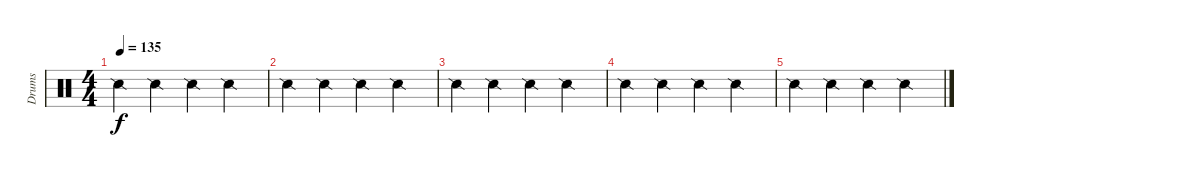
\track ("Drums" "Drums") {instrument percussion}
\staff {score}
\articulation defaults
\ts (4 4)
\tempo 135
\clef neutral
\ks c "Snare (side stick) 2".4{dy f} "Snare (side stick) 2".4 "Snare (side stick) 2".4 "Snare (side stick) 2".4
|
"Snare (side stick) 2".4 "Snare (side stick) 2".4 "Snare (side stick) 2".4 "Snare (side stick) 2".4 |
"Snare (side stick) 2".4 "Snare (side stick) 2".4 "Snare (side stick) 2".4 "Snare (side stick) 2".4 |
"Snare (side stick) 2".4 "Snare (side stick) 2".4 "Snare (side stick) 2".4 "Snare (side stick) 2".4 |
"Snare (side stick) 2".4 "Snare (side stick) 2".4 "Snare (side stick) 2".4 "Snare (side stick) 2".4
